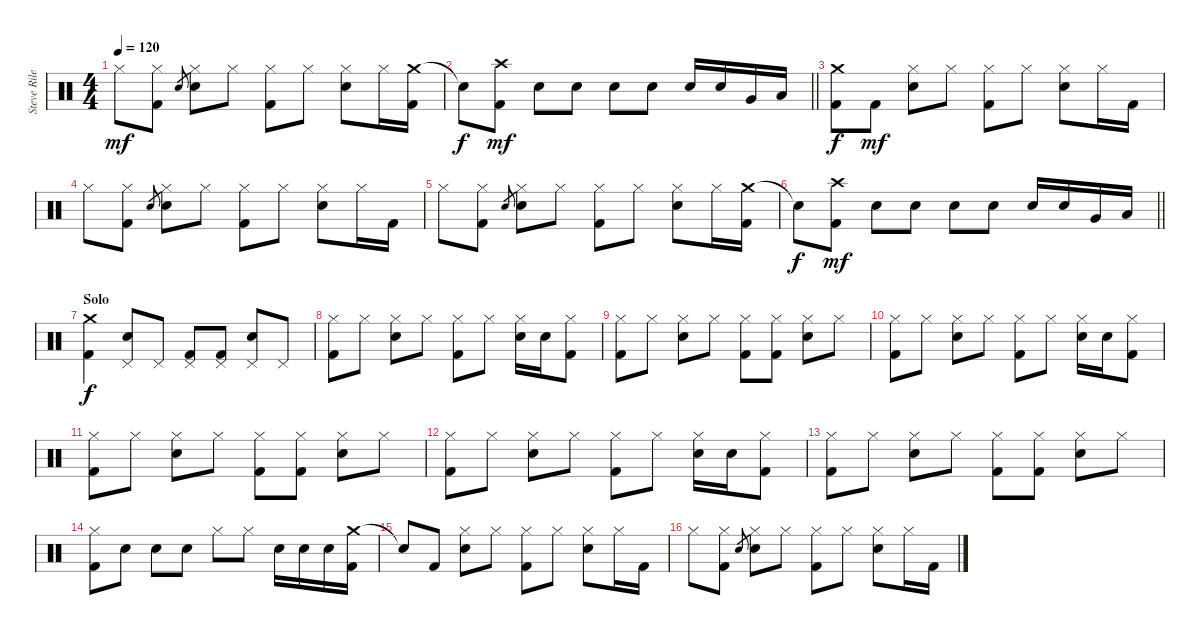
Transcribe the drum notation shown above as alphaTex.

\track ("Steve Riley" "Steve Rile") {instrument percussion}
\staff {score}
\articulation defaults
\ts (4 4)
\tempo 120
\clef neutral
\ks c "Hi-Hat (closed)".8{dy mf}
("Hi-Hat (closed)" "Kick (hit) 2").8 "Snare (hit) 2".8{gr} ("Hi-Hat (closed)" "Snare (hit) 2").8 "Hi-Hat (closed)".8 ("Hi-Hat (closed)" "Kick (hit) 2").8 "Hi-Hat (closed)".8 ("Hi-Hat (closed)" "Snare (hit) 2").8 "Hi-Hat (closed)".16 ("Crash medium (hit)" "Kick (hit) 2").16 |
\barLineRight lightlight "Snare (hit)"{t}.8{dy f}
("Crash high (hit)" "Kick (hit) 2").8{dy mf} "Snare (hit) 2".8 "Snare (hit) 2".8 "Snare (hit) 2".8 "Snare (hit) 2".8 "Snare (hit) 2".16 "Snare (hit) 2".16 "Very Low Tom (hit)".16 "Low Floor Tom (hit)".16 |
("Crash medium (hit)" "Kick (hit) 2").8{dy f} "Kick (hit) 2".8{dy mf} ("Hi-Hat (closed)" "Snare (hit) 2").8 "Hi-Hat (closed)".8 ("Hi-Hat (closed)" "Kick (hit) 2").8 "Hi-Hat (closed)".8 ("Hi-Hat (closed)" "Snare (hit) 2").8 "Hi-Hat (closed)".16 "Kick (hit) 2".16 |
"Hi-Hat (closed)".8 ("Hi-Hat (closed)" "Kick (hit) 2").8 "Snare (hit) 2".8{gr} ("Hi-Hat (closed)" "Snare (hit) 2").8 "Hi-Hat (closed)".8 ("Hi-Hat (closed)" "Kick (hit) 2").8 "Hi-Hat (closed)".8 ("Hi-Hat (closed)" "Snare (hit) 2").8 "Hi-Hat (closed)".16 "Kick (hit) 2".16 |
"Hi-Hat (closed)".8 ("Hi-Hat (closed)" "Kick (hit) 2").8 "Snare (hit) 2".8{gr} ("Hi-Hat (closed)" "Snare (hit) 2").8 "Hi-Hat (closed)".8 ("Hi-Hat (closed)" "Kick (hit) 2").8 "Hi-Hat (closed)".8 ("Hi-Hat (closed)" "Snare (hit) 2").8 "Hi-Hat (closed)".16 ("Crash medium (hit)" "Kick (hit) 2").16 |
\barLineRight lightlight "Snare (hit)"{t}.8{dy f}
("Crash high (hit)" "Kick (hit) 2").8{dy mf} "Snare (hit) 2".8 "Snare (hit) 2".8 "Snare (hit) 2".8 "Snare (hit) 2".8 "Snare (hit) 2".16 "Snare (hit) 2".16 "Very Low Tom (hit)".16 "Low Floor Tom (hit)".16 |
\section ("" "Solo")
("Crash medium (hit)" "Kick (hit) 2").4{dy f} ("Pedal Hi-Hat (hit)" "Snare (hit) 2").8 "Pedal Hi-Hat (hit)".8 ("Pedal Hi-Hat (hit)" "Kick (hit) 2").8 ("Pedal Hi-Hat (hit)" "Kick (hit) 2").8 ("Pedal Hi-Hat (hit)" "Snare (hit) 2").8 "Pedal Hi-Hat (hit)".8 |
("Hi-Hat (closed)" "Kick (hit) 2").8 "Hi-Hat (closed)".8 ("Hi-Hat (closed)" "Snare (hit) 2").8 "Hi-Hat (closed)".8 ("Hi-Hat (closed)" "Kick (hit) 2").8 "Hi-Hat (closed)".8 ("Hi-Hat (closed)" "Snare (hit) 2").16 "Snare (hit) 2".16 ("Hi-Hat (closed)" "Kick (hit) 2").8 |
("Hi-Hat (closed)" "Kick (hit) 2").8 "Hi-Hat (closed)".8 ("Hi-Hat (closed)" "Snare (hit) 2").8 "Hi-Hat (closed)".8 ("Hi-Hat (closed)" "Kick (hit) 2").8 ("Hi-Hat (closed)" "Kick (hit) 2").8 ("Hi-Hat (closed)" "Snare (hit) 2").8 "Hi-Hat (closed)".8 |
("Hi-Hat (closed)" "Kick (hit) 2").8 "Hi-Hat (closed)".8 ("Hi-Hat (closed)" "Snare (hit) 2").8 "Hi-Hat (closed)".8 ("Hi-Hat (closed)" "Kick (hit) 2").8 "Hi-Hat (closed)".8 ("Hi-Hat (closed)" "Snare (hit) 2").16 "Snare (hit) 2".16 ("Hi-Hat (closed)" "Kick (hit) 2").8 |
("Hi-Hat (closed)" "Kick (hit) 2").8 "Hi-Hat (closed)".8 ("Hi-Hat (closed)" "Snare (hit) 2").8 "Hi-Hat (closed)".8 ("Hi-Hat (closed)" "Kick (hit) 2").8 ("Hi-Hat (closed)" "Kick (hit) 2").8 ("Hi-Hat (closed)" "Snare (hit) 2").8 "Hi-Hat (closed)".8 |
("Hi-Hat (closed)" "Kick (hit) 2").8 "Hi-Hat (closed)".8 ("Hi-Hat (closed)" "Snare (hit) 2").8 "Hi-Hat (closed)".8 ("Hi-Hat (closed)" "Kick (hit) 2").8 "Hi-Hat (closed)".8 ("Hi-Hat (closed)" "Snare (hit) 2").16 "Snare (hit) 2".16 ("Hi-Hat (closed)" "Kick (hit) 2").8 |
("Hi-Hat (closed)" "Kick (hit) 2").8 "Hi-Hat (closed)".8 ("Hi-Hat (closed)" "Snare (hit) 2").8 "Hi-Hat (closed)".8 ("Hi-Hat (closed)" "Kick (hit) 2").8 ("Hi-Hat (closed)" "Kick (hit) 2").8 ("Hi-Hat (closed)" "Snare (hit) 2").8 "Hi-Hat (closed)".8 |
("Hi-Hat (closed)" "Kick (hit) 2").8 "Snare (hit) 2".8 "Snare (hit) 2".8 "Snare (hit) 2".8 "Hi-Hat (closed)".8 "Hi-Hat (closed)".8 "Snare (hit) 2".16 "Snare (hit) 2".16 "Snare (hit) 2".16 ("Crash medium (hit)" "Kick (hit) 2").16 |
"Snare (hit)"{t}.8 "Kick (hit) 2".8 ("Hi-Hat (closed)" "Snare (hit) 2").8 "Hi-Hat (closed)".8 ("Hi-Hat (closed)" "Kick (hit) 2").8 "Hi-Hat (closed)".8 ("Hi-Hat (closed)" "Snare (hit) 2").8 "Hi-Hat (closed)".16 "Kick (hit) 2".16 |
"Hi-Hat (closed)".8 ("Hi-Hat (closed)" "Kick (hit) 2").8 "Snare (hit) 2".8{gr} ("Hi-Hat (closed)" "Snare (hit) 2").8 "Hi-Hat (closed)".8 ("Hi-Hat (closed)" "Kick (hit) 2").8 "Hi-Hat (closed)".8 ("Hi-Hat (closed)" "Snare (hit) 2").8 "Hi-Hat (closed)".16 "Kick (hit) 2".16
